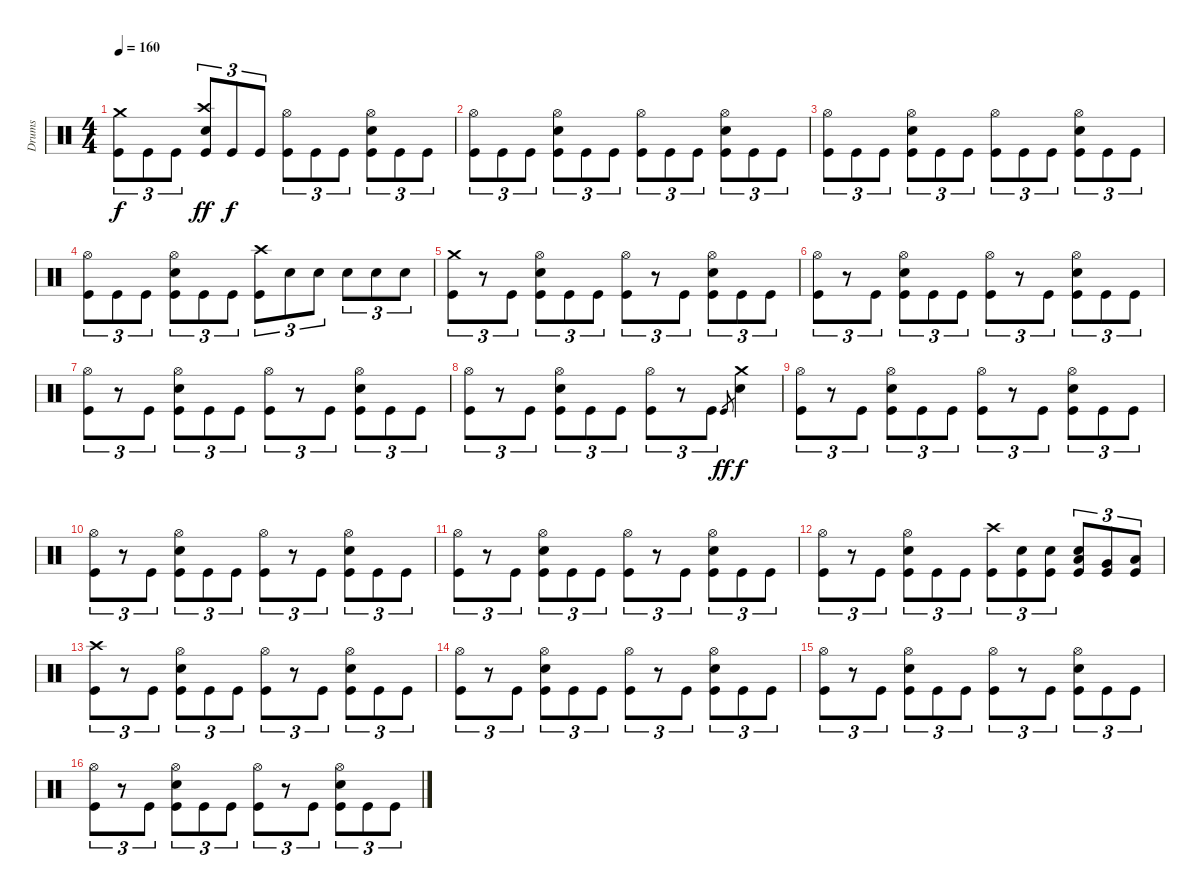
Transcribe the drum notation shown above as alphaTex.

\track ("Drums" "Drums") {instrument percussion}
\staff {score}
\articulation defaults
\ts (4 4)
\tempo 160
\clef neutral
\ks c
("Crash medium (hit)" "Kick (hit)").8{tu (3 2) dy f} "Kick (hit)".8{tu (3 2)} "Kick (hit)".8{tu (3 2)} ("Crash high (hit)" "Snare (hit) 2" "Kick (hit)").8{tu (3 2) dy ff} "Kick (hit)".8{tu (3 2) dy f} "Kick (hit)".8{tu (3 2)} ("Hi-Hat (open)" "Kick (hit)").8{tu (3 2)} "Kick (hit)".8{tu (3 2)} "Kick (hit)".8{tu (3 2)} ("Hi-Hat (open)" "Snare (hit) 2" "Kick (hit)").8{tu (3 2)} "Kick (hit)".8{tu (3 2)} "Kick (hit)".8{tu (3 2)} |
("Hi-Hat (open)" "Kick (hit)").8{tu (3 2)} "Kick (hit)".8{tu (3 2)} "Kick (hit)".8{tu (3 2)} ("Hi-Hat (open)" "Snare (hit) 2" "Kick (hit)").8{tu (3 2)} "Kick (hit)".8{tu (3 2)} "Kick (hit)".8{tu (3 2)} ("Hi-Hat (open)" "Kick (hit)").8{tu (3 2)} "Kick (hit)".8{tu (3 2)} "Kick (hit)".8{tu (3 2)} ("Hi-Hat (open)" "Snare (hit) 2" "Kick (hit)").8{tu (3 2)} "Kick (hit)".8{tu (3 2)} "Kick (hit)".8{tu (3 2)} |
("Hi-Hat (open)" "Kick (hit)").8{tu (3 2)} "Kick (hit)".8{tu (3 2)} "Kick (hit)".8{tu (3 2)} ("Hi-Hat (open)" "Snare (hit) 2" "Kick (hit)").8{tu (3 2)} "Kick (hit)".8{tu (3 2)} "Kick (hit)".8{tu (3 2)} ("Hi-Hat (open)" "Kick (hit)").8{tu (3 2)} "Kick (hit)".8{tu (3 2)} "Kick (hit)".8{tu (3 2)} ("Hi-Hat (open)" "Snare (hit) 2" "Kick (hit)").8{tu (3 2)} "Kick (hit)".8{tu (3 2)} "Kick (hit)".8{tu (3 2)} |
("Hi-Hat (open)" "Kick (hit)").8{tu (3 2)} "Kick (hit)".8{tu (3 2)} "Kick (hit)".8{tu (3 2)} ("Hi-Hat (open)" "Snare (hit) 2" "Kick (hit)").8{tu (3 2)} "Kick (hit)".8{tu (3 2)} "Kick (hit)".8{tu (3 2)} ("Crash high (hit)" "Kick (hit)").8{tu (3 2)} "Snare (hit) 2".8{tu (3 2)} "Snare (hit) 2".8{tu (3 2)} "Snare (hit) 2".8{tu (3 2)} "Snare (hit) 2".8{tu (3 2)} "Snare (hit) 2".8{tu (3 2)} |
("Crash medium (hit)" "Kick (hit)").8{tu (3 2)} r.8{tu (3 2)} "Kick (hit)".8{tu (3 2)} ("Hi-Hat (open)" "Snare (hit) 2" "Kick (hit)").8{tu (3 2)} "Kick (hit)".8{tu (3 2)} "Kick (hit)".8{tu (3 2)} ("Hi-Hat (open)" "Kick (hit)").8{tu (3 2)} r.8{tu (3 2)} "Kick (hit)".8{tu (3 2)} ("Hi-Hat (open)" "Snare (hit) 2" "Kick (hit)").8{tu (3 2)} "Kick (hit)".8{tu (3 2)} "Kick (hit)".8{tu (3 2)} |
("Hi-Hat (open)" "Kick (hit)").8{tu (3 2)} r.8{tu (3 2)} "Kick (hit)".8{tu (3 2)} ("Hi-Hat (open)" "Snare (hit) 2" "Kick (hit)").8{tu (3 2)} "Kick (hit)".8{tu (3 2)} "Kick (hit)".8{tu (3 2)} ("Hi-Hat (open)" "Kick (hit)").8{tu (3 2)} r.8{tu (3 2)} "Kick (hit)".8{tu (3 2)} ("Hi-Hat (open)" "Snare (hit) 2" "Kick (hit)").8{tu (3 2)} "Kick (hit)".8{tu (3 2)} "Kick (hit)".8{tu (3 2)} |
("Hi-Hat (open)" "Kick (hit)").8{tu (3 2)} r.8{tu (3 2)} "Kick (hit)".8{tu (3 2)} ("Hi-Hat (open)" "Snare (hit) 2" "Kick (hit)").8{tu (3 2)} "Kick (hit)".8{tu (3 2)} "Kick (hit)".8{tu (3 2)} ("Hi-Hat (open)" "Kick (hit)").8{tu (3 2)} r.8{tu (3 2)} "Kick (hit)".8{tu (3 2)} ("Hi-Hat (open)" "Snare (hit) 2" "Kick (hit)").8{tu (3 2)} "Kick (hit)".8{tu (3 2)} "Kick (hit)".8{tu (3 2)} |
("Hi-Hat (open)" "Kick (hit)").8{tu (3 2)} r.8{tu (3 2)} "Kick (hit)".8{tu (3 2)} ("Hi-Hat (open)" "Snare (hit) 2" "Kick (hit)").8{tu (3 2)} "Kick (hit)".8{tu (3 2)} "Kick (hit)".8{tu (3 2)} ("Hi-Hat (open)" "Kick (hit)").8{tu (3 2)} r.8{tu (3 2)} "Kick (hit)".8{tu (3 2)} "Kick (hit)".8{gr dy ff} ("Crash medium (hit)" "Snare (hit) 2").4{dy f} |
("Hi-Hat (open)" "Kick (hit)").8{tu (3 2)} r.8{tu (3 2)} "Kick (hit)".8{tu (3 2)} ("Hi-Hat (open)" "Snare (hit) 2" "Kick (hit)").8{tu (3 2)} "Kick (hit)".8{tu (3 2)} "Kick (hit)".8{tu (3 2)} ("Hi-Hat (open)" "Kick (hit)").8{tu (3 2)} r.8{tu (3 2)} "Kick (hit)".8{tu (3 2)} ("Hi-Hat (open)" "Snare (hit) 2" "Kick (hit)").8{tu (3 2)} "Kick (hit)".8{tu (3 2)} "Kick (hit)".8{tu (3 2)} |
("Hi-Hat (open)" "Kick (hit)").8{tu (3 2)} r.8{tu (3 2)} "Kick (hit)".8{tu (3 2)} ("Hi-Hat (open)" "Snare (hit) 2" "Kick (hit)").8{tu (3 2)} "Kick (hit)".8{tu (3 2)} "Kick (hit)".8{tu (3 2)} ("Hi-Hat (open)" "Kick (hit)").8{tu (3 2)} r.8{tu (3 2)} "Kick (hit)".8{tu (3 2)} ("Hi-Hat (open)" "Snare (hit) 2" "Kick (hit)").8{tu (3 2)} "Kick (hit)".8{tu (3 2)} "Kick (hit)".8{tu (3 2)} |
("Hi-Hat (open)" "Kick (hit)").8{tu (3 2)} r.8{tu (3 2)} "Kick (hit)".8{tu (3 2)} ("Hi-Hat (open)" "Snare (hit) 2" "Kick (hit)").8{tu (3 2)} "Kick (hit)".8{tu (3 2)} "Kick (hit)".8{tu (3 2)} ("Hi-Hat (open)" "Kick (hit)").8{tu (3 2)} r.8{tu (3 2)} "Kick (hit)".8{tu (3 2)} ("Hi-Hat (open)" "Snare (hit) 2" "Kick (hit)").8{tu (3 2)} "Kick (hit)".8{tu (3 2)} "Kick (hit)".8{tu (3 2)} |
("Hi-Hat (open)" "Kick (hit)").8{tu (3 2)} r.8{tu (3 2)} "Kick (hit)".8{tu (3 2)} ("Hi-Hat (open)" "Snare (hit) 2" "Kick (hit)").8{tu (3 2)} "Kick (hit)".8{tu (3 2)} "Kick (hit)".8{tu (3 2)} ("Crash high (hit)" "Kick (hit)").8{tu (3 2)} ("Snare (hit) 2" "Kick (hit)").8{tu (3 2)} ("Snare (hit) 2" "Kick (hit)").8{tu (3 2)} ("Low Tom (hit)" "Snare (hit) 2" "Kick (hit)").8{tu (3 2)} ("Very Low Tom (hit)" "Kick (hit)").8{tu (3 2)} ("Low Floor Tom (hit)" "Kick (hit)").8{tu (3 2)} |
("Crash high (hit)" "Kick (hit)").8{tu (3 2)} r.8{tu (3 2)} "Kick (hit)".8{tu (3 2)} ("Hi-Hat (open)" "Snare (hit) 2" "Kick (hit)").8{tu (3 2)} "Kick (hit)".8{tu (3 2)} "Kick (hit)".8{tu (3 2)} ("Hi-Hat (open)" "Kick (hit)").8{tu (3 2)} r.8{tu (3 2)} "Kick (hit)".8{tu (3 2)} ("Hi-Hat (open)" "Snare (hit) 2" "Kick (hit)").8{tu (3 2)} "Kick (hit)".8{tu (3 2)} "Kick (hit)".8{tu (3 2)} |
("Hi-Hat (open)" "Kick (hit)").8{tu (3 2)} r.8{tu (3 2)} "Kick (hit)".8{tu (3 2)} ("Hi-Hat (open)" "Snare (hit) 2" "Kick (hit)").8{tu (3 2)} "Kick (hit)".8{tu (3 2)} "Kick (hit)".8{tu (3 2)} ("Hi-Hat (open)" "Kick (hit)").8{tu (3 2)} r.8{tu (3 2)} "Kick (hit)".8{tu (3 2)} ("Hi-Hat (open)" "Snare (hit) 2" "Kick (hit)").8{tu (3 2)} "Kick (hit)".8{tu (3 2)} "Kick (hit)".8{tu (3 2)} |
("Hi-Hat (open)" "Kick (hit)").8{tu (3 2)} r.8{tu (3 2)} "Kick (hit)".8{tu (3 2)} ("Hi-Hat (open)" "Snare (hit) 2" "Kick (hit)").8{tu (3 2)} "Kick (hit)".8{tu (3 2)} "Kick (hit)".8{tu (3 2)} ("Hi-Hat (open)" "Kick (hit)").8{tu (3 2)} r.8{tu (3 2)} "Kick (hit)".8{tu (3 2)} ("Hi-Hat (open)" "Snare (hit) 2" "Kick (hit)").8{tu (3 2)} "Kick (hit)".8{tu (3 2)} "Kick (hit)".8{tu (3 2)} |
("Hi-Hat (open)" "Kick (hit)").8{tu (3 2)} r.8{tu (3 2)} "Kick (hit)".8{tu (3 2)} ("Hi-Hat (open)" "Snare (hit) 2" "Kick (hit)").8{tu (3 2)} "Kick (hit)".8{tu (3 2)} "Kick (hit)".8{tu (3 2)} ("Hi-Hat (open)" "Kick (hit)").8{tu (3 2)} r.8{tu (3 2)} "Kick (hit)".8{tu (3 2)} ("Hi-Hat (open)" "Snare (hit) 2" "Kick (hit)").8{tu (3 2)} "Kick (hit)".8{tu (3 2)} "Kick (hit)".8{tu (3 2)}
